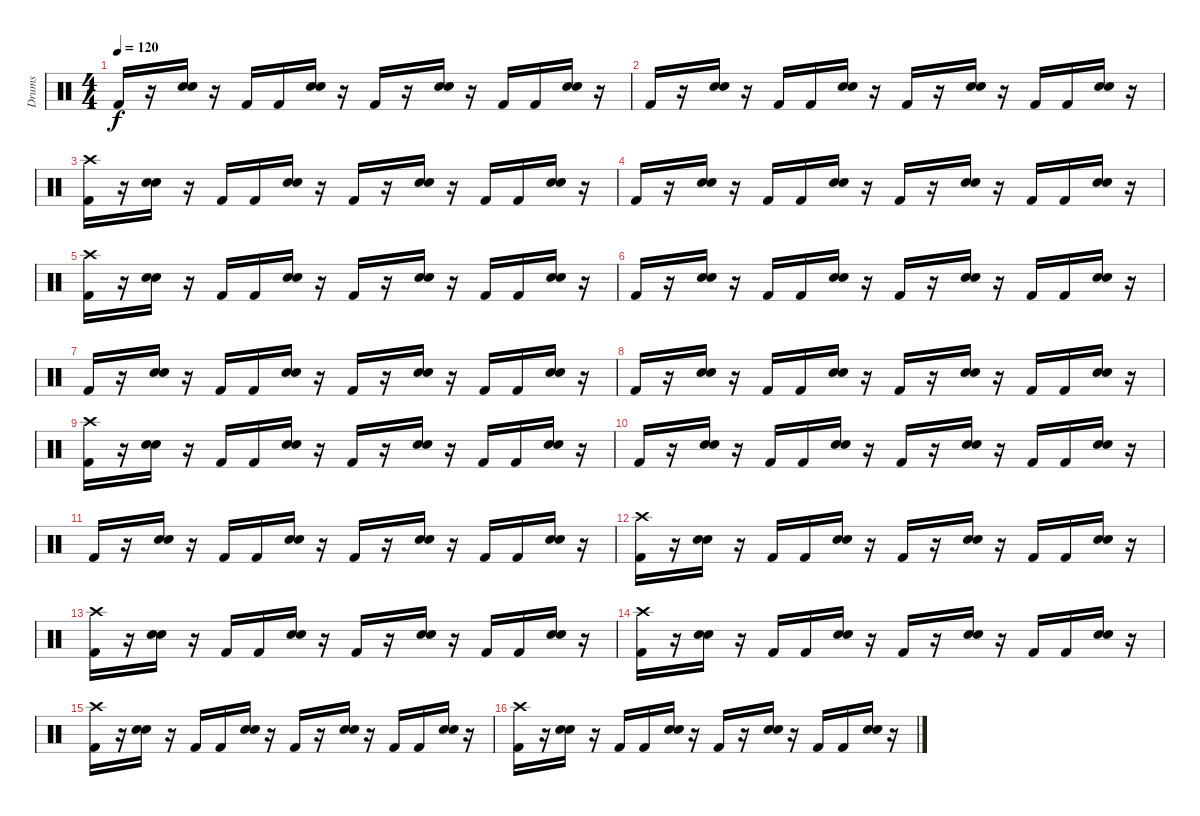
\track ("Drums" "Drums") {instrument percussion}
\staff {score}
\articulation defaults
\ts (4 4)
\tempo 120
\clef neutral
\ks c "Kick (hit) 2".16{dy f}
r.16 ("Snare (hit) 2" "Snare (hit) 2").16 r.16 "Kick (hit) 2".16 "Kick (hit) 2".16 ("Snare (hit) 2" "Snare (hit) 2").16 r.16 "Kick (hit) 2".16 r.16 ("Snare (hit) 2" "Snare (hit) 2").16 r.16 "Kick (hit) 2".16 "Kick (hit) 2".16 ("Snare (hit) 2" "Snare (hit) 2").16 r.16 |
"Kick (hit) 2".16 r.16 ("Snare (hit) 2" "Snare (hit) 2").16 r.16 "Kick (hit) 2".16 "Kick (hit) 2".16 ("Snare (hit) 2" "Snare (hit) 2").16 r.16 "Kick (hit) 2".16 r.16 ("Snare (hit) 2" "Snare (hit) 2").16 r.16 "Kick (hit) 2".16 "Kick (hit) 2".16 ("Snare (hit) 2" "Snare (hit) 2").16 r.16 |
("Crash high (hit)" "Kick (hit) 2").16 r.16 ("Snare (hit) 2" "Snare (hit) 2").16 r.16 "Kick (hit) 2".16 "Kick (hit) 2".16 ("Snare (hit) 2" "Snare (hit) 2").16 r.16 "Kick (hit) 2".16 r.16 ("Snare (hit) 2" "Snare (hit) 2").16 r.16 "Kick (hit) 2".16 "Kick (hit) 2".16 ("Snare (hit) 2" "Snare (hit) 2").16 r.16 |
"Kick (hit) 2".16 r.16 ("Snare (hit) 2" "Snare (hit) 2").16 r.16 "Kick (hit) 2".16 "Kick (hit) 2".16 ("Snare (hit) 2" "Snare (hit) 2").16 r.16 "Kick (hit) 2".16 r.16 ("Snare (hit) 2" "Snare (hit) 2").16 r.16 "Kick (hit) 2".16 "Kick (hit) 2".16 ("Snare (hit) 2" "Snare (hit) 2").16 r.16 |
("Crash high (hit)" "Kick (hit) 2").16 r.16 ("Snare (hit) 2" "Snare (hit) 2").16 r.16 "Kick (hit) 2".16 "Kick (hit) 2".16 ("Snare (hit) 2" "Snare (hit) 2").16 r.16 "Kick (hit) 2".16 r.16 ("Snare (hit) 2" "Snare (hit) 2").16 r.16 "Kick (hit) 2".16 "Kick (hit) 2".16 ("Snare (hit) 2" "Snare (hit) 2").16 r.16 |
"Kick (hit) 2".16 r.16 ("Snare (hit) 2" "Snare (hit) 2").16 r.16 "Kick (hit) 2".16 "Kick (hit) 2".16 ("Snare (hit) 2" "Snare (hit) 2").16 r.16 "Kick (hit) 2".16 r.16 ("Snare (hit) 2" "Snare (hit) 2").16 r.16 "Kick (hit) 2".16 "Kick (hit) 2".16 ("Snare (hit) 2" "Snare (hit) 2").16 r.16 |
"Kick (hit) 2".16 r.16 ("Snare (hit) 2" "Snare (hit) 2").16 r.16 "Kick (hit) 2".16 "Kick (hit) 2".16 ("Snare (hit) 2" "Snare (hit) 2").16 r.16 "Kick (hit) 2".16 r.16 ("Snare (hit) 2" "Snare (hit) 2").16 r.16 "Kick (hit) 2".16 "Kick (hit) 2".16 ("Snare (hit) 2" "Snare (hit) 2").16 r.16 |
"Kick (hit) 2".16 r.16 ("Snare (hit) 2" "Snare (hit) 2").16 r.16 "Kick (hit) 2".16 "Kick (hit) 2".16 ("Snare (hit) 2" "Snare (hit) 2").16 r.16 "Kick (hit) 2".16 r.16 ("Snare (hit) 2" "Snare (hit) 2").16 r.16 "Kick (hit) 2".16 "Kick (hit) 2".16 ("Snare (hit) 2" "Snare (hit) 2").16 r.16 |
("Crash high (hit)" "Kick (hit) 2").16 r.16 ("Snare (hit) 2" "Snare (hit) 2").16 r.16 "Kick (hit) 2".16 "Kick (hit) 2".16 ("Snare (hit) 2" "Snare (hit) 2").16 r.16 "Kick (hit) 2".16 r.16 ("Snare (hit) 2" "Snare (hit) 2").16 r.16 "Kick (hit) 2".16 "Kick (hit) 2".16 ("Snare (hit) 2" "Snare (hit) 2").16 r.16 |
"Kick (hit) 2".16 r.16 ("Snare (hit) 2" "Snare (hit) 2").16 r.16 "Kick (hit) 2".16 "Kick (hit) 2".16 ("Snare (hit) 2" "Snare (hit) 2").16 r.16 "Kick (hit) 2".16 r.16 ("Snare (hit) 2" "Snare (hit) 2").16 r.16 "Kick (hit) 2".16 "Kick (hit) 2".16 ("Snare (hit) 2" "Snare (hit) 2").16 r.16 |
"Kick (hit) 2".16 r.16 ("Snare (hit) 2" "Snare (hit) 2").16 r.16 "Kick (hit) 2".16 "Kick (hit) 2".16 ("Snare (hit) 2" "Snare (hit) 2").16 r.16 "Kick (hit) 2".16 r.16 ("Snare (hit) 2" "Snare (hit) 2").16 r.16 "Kick (hit) 2".16 "Kick (hit) 2".16 ("Snare (hit) 2" "Snare (hit) 2").16 r.16 |
("Crash high (hit)" "Kick (hit) 2").16 r.16 ("Snare (hit) 2" "Snare (hit) 2").16 r.16 "Kick (hit) 2".16 "Kick (hit) 2".16 ("Snare (hit) 2" "Snare (hit) 2").16 r.16 "Kick (hit) 2".16 r.16 ("Snare (hit) 2" "Snare (hit) 2").16 r.16 "Kick (hit) 2".16 "Kick (hit) 2".16 ("Snare (hit) 2" "Snare (hit) 2").16 r.16 |
("Crash high (hit)" "Kick (hit) 2").16 r.16 ("Snare (hit) 2" "Snare (hit) 2").16 r.16 "Kick (hit) 2".16 "Kick (hit) 2".16 ("Snare (hit) 2" "Snare (hit) 2").16 r.16 "Kick (hit) 2".16 r.16 ("Snare (hit) 2" "Snare (hit) 2").16 r.16 "Kick (hit) 2".16 "Kick (hit) 2".16 ("Snare (hit) 2" "Snare (hit) 2").16 r.16 |
("Crash high (hit)" "Kick (hit) 2").16 r.16 ("Snare (hit) 2" "Snare (hit) 2").16 r.16 "Kick (hit) 2".16 "Kick (hit) 2".16 ("Snare (hit) 2" "Snare (hit) 2").16 r.16 "Kick (hit) 2".16 r.16 ("Snare (hit) 2" "Snare (hit) 2").16 r.16 "Kick (hit) 2".16 "Kick (hit) 2".16 ("Snare (hit) 2" "Snare (hit) 2").16 r.16 |
("Crash high (hit)" "Kick (hit) 2").16 r.16 ("Snare (hit) 2" "Snare (hit) 2").16 r.16 "Kick (hit) 2".16 "Kick (hit) 2".16 ("Snare (hit) 2" "Snare (hit) 2").16 r.16 "Kick (hit) 2".16 r.16 ("Snare (hit) 2" "Snare (hit) 2").16 r.16 "Kick (hit) 2".16 "Kick (hit) 2".16 ("Snare (hit) 2" "Snare (hit) 2").16 r.16 |
("Crash high (hit)" "Kick (hit) 2").16 r.16 ("Snare (hit) 2" "Snare (hit) 2").16 r.16 "Kick (hit) 2".16 "Kick (hit) 2".16 ("Snare (hit) 2" "Snare (hit) 2").16 r.16 "Kick (hit) 2".16 r.16 ("Snare (hit) 2" "Snare (hit) 2").16 r.16 "Kick (hit) 2".16 "Kick (hit) 2".16 ("Snare (hit) 2" "Snare (hit) 2").16 r.16
